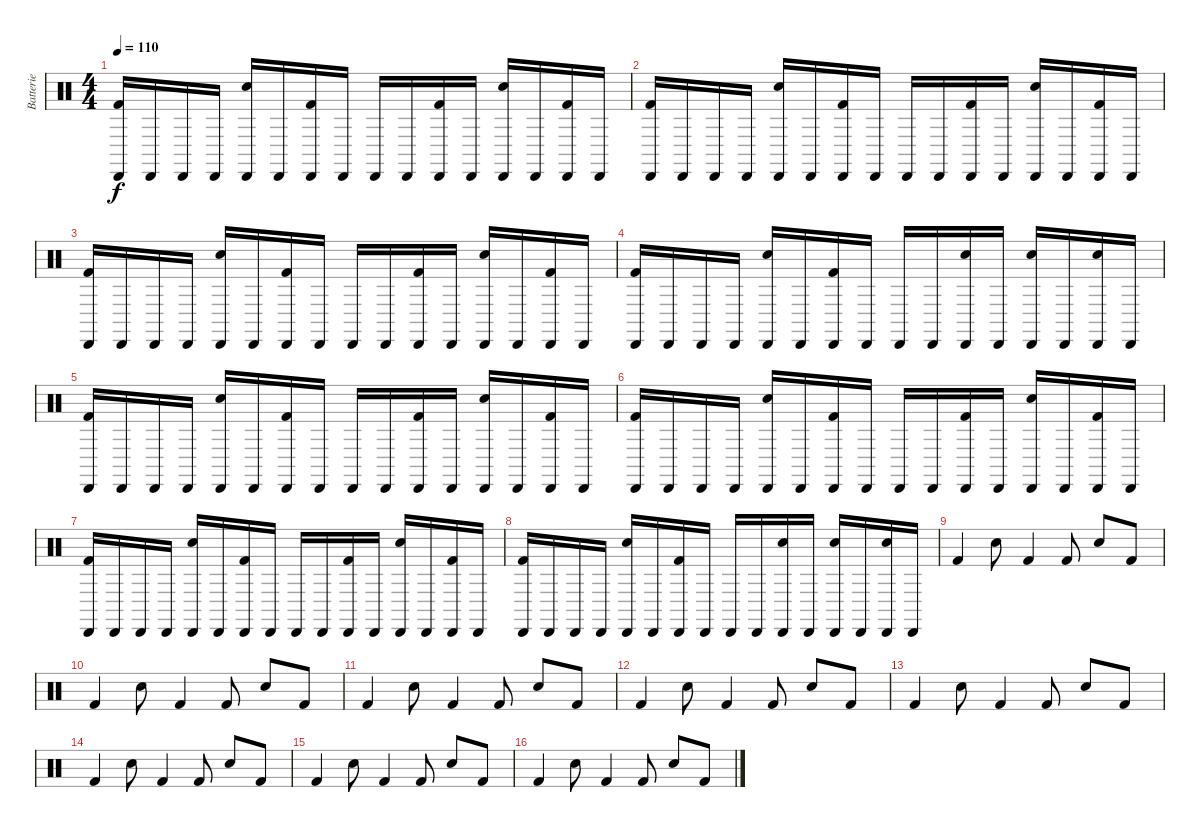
\track ("Batterie" "Batterie") {instrument percussion}
\staff {score}
\articulation defaults
\ts (4 4)
\tempo 110
\clef neutral
\ks c
("Cabasa (hit)" "Kick (hit) 2").16{dy f} "Cabasa (hit)".16 "Cabasa (hit)".16 "Cabasa (hit)".16 ("Cabasa (hit)" "Snare (hit) 2").16 "Cabasa (hit)".16 ("Cabasa (hit)" "Kick (hit) 2").16 "Cabasa (hit)".16 "Cabasa (hit)".16 "Cabasa (hit)".16 ("Cabasa (hit)" "Kick (hit) 2").16 "Cabasa (hit)".16 ("Cabasa (hit)" "Snare (hit) 2").16 "Cabasa (hit)".16 ("Cabasa (hit)" "Kick (hit) 2").16 "Cabasa (hit)".16 |
("Cabasa (hit)" "Kick (hit) 2").16 "Cabasa (hit)".16 "Cabasa (hit)".16 "Cabasa (hit)".16 ("Cabasa (hit)" "Snare (hit) 2").16 "Cabasa (hit)".16 ("Cabasa (hit)" "Kick (hit) 2").16 "Cabasa (hit)".16 "Cabasa (hit)".16 "Cabasa (hit)".16 ("Cabasa (hit)" "Kick (hit) 2").16 "Cabasa (hit)".16 ("Cabasa (hit)" "Snare (hit) 2").16 "Cabasa (hit)".16 ("Cabasa (hit)" "Kick (hit) 2").16 "Cabasa (hit)".16 |
("Cabasa (hit)" "Kick (hit) 2").16 "Cabasa (hit)".16 "Cabasa (hit)".16 "Cabasa (hit)".16 ("Cabasa (hit)" "Snare (hit) 2").16 "Cabasa (hit)".16 ("Cabasa (hit)" "Kick (hit) 2").16 "Cabasa (hit)".16 "Cabasa (hit)".16 "Cabasa (hit)".16 ("Cabasa (hit)" "Kick (hit) 2").16 "Cabasa (hit)".16 ("Cabasa (hit)" "Snare (hit) 2").16 "Cabasa (hit)".16 ("Cabasa (hit)" "Kick (hit) 2").16 "Cabasa (hit)".16 |
("Cabasa (hit)" "Kick (hit) 2").16 "Cabasa (hit)".16 "Cabasa (hit)".16 "Cabasa (hit)".16 ("Cabasa (hit)" "Snare (hit) 2").16 "Cabasa (hit)".16 ("Cabasa (hit)" "Kick (hit) 2").16 "Cabasa (hit)".16 "Cabasa (hit)".16 "Cabasa (hit)".16 ("Cabasa (hit)" "Snare (hit) 2").16 "Cabasa (hit)".16 ("Cabasa (hit)" "Snare (hit) 2").16 "Cabasa (hit)".16 ("Cabasa (hit)" "Snare (hit) 2").16 "Cabasa (hit)".16 |
("Cabasa (hit)" "Kick (hit) 2").16 "Cabasa (hit)".16 "Cabasa (hit)".16 "Cabasa (hit)".16 ("Cabasa (hit)" "Snare (hit) 2").16 "Cabasa (hit)".16 ("Cabasa (hit)" "Kick (hit) 2").16 "Cabasa (hit)".16 "Cabasa (hit)".16 "Cabasa (hit)".16 ("Cabasa (hit)" "Kick (hit) 2").16 "Cabasa (hit)".16 ("Cabasa (hit)" "Snare (hit) 2").16 "Cabasa (hit)".16 ("Cabasa (hit)" "Kick (hit) 2").16 "Cabasa (hit)".16 |
("Cabasa (hit)" "Kick (hit) 2").16 "Cabasa (hit)".16 "Cabasa (hit)".16 "Cabasa (hit)".16 ("Cabasa (hit)" "Snare (hit) 2").16 "Cabasa (hit)".16 ("Cabasa (hit)" "Kick (hit) 2").16 "Cabasa (hit)".16 "Cabasa (hit)".16 "Cabasa (hit)".16 ("Cabasa (hit)" "Kick (hit) 2").16 "Cabasa (hit)".16 ("Cabasa (hit)" "Snare (hit) 2").16 "Cabasa (hit)".16 ("Cabasa (hit)" "Kick (hit) 2").16 "Cabasa (hit)".16 |
("Cabasa (hit)" "Kick (hit) 2").16 "Cabasa (hit)".16 "Cabasa (hit)".16 "Cabasa (hit)".16 ("Cabasa (hit)" "Snare (hit) 2").16 "Cabasa (hit)".16 ("Cabasa (hit)" "Kick (hit) 2").16 "Cabasa (hit)".16 "Cabasa (hit)".16 "Cabasa (hit)".16 ("Cabasa (hit)" "Kick (hit) 2").16 "Cabasa (hit)".16 ("Cabasa (hit)" "Snare (hit) 2").16 "Cabasa (hit)".16 ("Cabasa (hit)" "Kick (hit) 2").16 "Cabasa (hit)".16 |
("Cabasa (hit)" "Kick (hit) 2").16 "Cabasa (hit)".16 "Cabasa (hit)".16 "Cabasa (hit)".16 ("Cabasa (hit)" "Snare (hit) 2").16 "Cabasa (hit)".16 ("Cabasa (hit)" "Kick (hit) 2").16 "Cabasa (hit)".16 "Cabasa (hit)".16 "Cabasa (hit)".16 ("Cabasa (hit)" "Snare (hit) 2").16 "Cabasa (hit)".16 ("Cabasa (hit)" "Snare (hit) 2").16 "Cabasa (hit)".16 ("Cabasa (hit)" "Snare (hit) 2").16 "Cabasa (hit)".16 |
"Kick (hit) 2".4 "Snare (hit) 2".8 "Kick (hit) 2".4 "Kick (hit) 2".8 "Snare (hit) 2".8 "Kick (hit) 2".8 |
"Kick (hit) 2".4 "Snare (hit) 2".8 "Kick (hit) 2".4 "Kick (hit) 2".8 "Snare (hit) 2".8 "Kick (hit) 2".8 |
"Kick (hit) 2".4 "Snare (hit) 2".8 "Kick (hit) 2".4 "Kick (hit) 2".8 "Snare (hit) 2".8 "Kick (hit) 2".8 |
"Kick (hit) 2".4 "Snare (hit) 2".8 "Kick (hit) 2".4 "Kick (hit) 2".8 "Snare (hit) 2".8 "Kick (hit) 2".8 |
"Kick (hit) 2".4 "Snare (hit) 2".8 "Kick (hit) 2".4 "Kick (hit) 2".8 "Snare (hit) 2".8 "Kick (hit) 2".8 |
"Kick (hit) 2".4 "Snare (hit) 2".8 "Kick (hit) 2".4 "Kick (hit) 2".8 "Snare (hit) 2".8 "Kick (hit) 2".8 |
"Kick (hit) 2".4 "Snare (hit) 2".8 "Kick (hit) 2".4 "Kick (hit) 2".8 "Snare (hit) 2".8 "Kick (hit) 2".8 |
"Kick (hit) 2".4 "Snare (hit) 2".8 "Kick (hit) 2".4 "Kick (hit) 2".8 "Snare (hit) 2".8 "Kick (hit) 2".8
